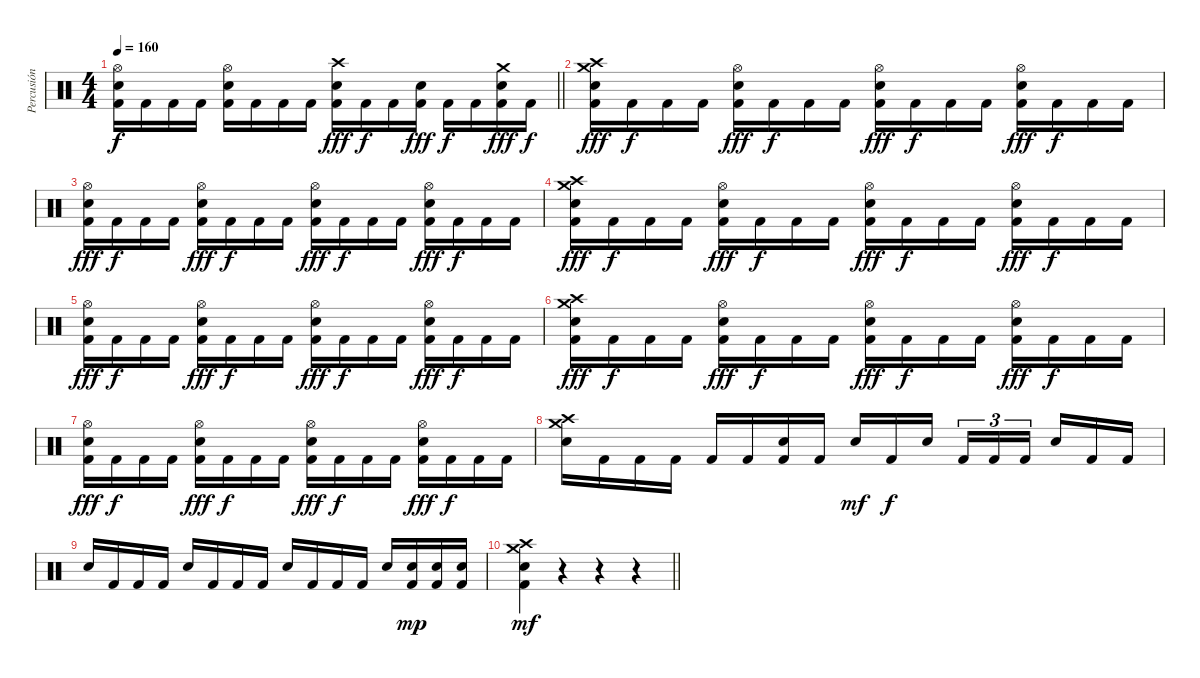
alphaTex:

\track ("Percusión" "Percusión") {instrument percussion}
\staff {score}
\articulation defaults
\ts (4 4)
\tempo 160
\clef neutral
\barLineRight lightlight
\ks c
("Hi-Hat (open)" "Electric Snare (hit)" "Kick (hit) 2").16{dy f} "Kick (hit) 2".16 "Kick (hit) 2".16 "Kick (hit) 2".16 ("Hi-Hat (open)" "Electric Snare (hit)" "Kick (hit) 2").16 "Kick (hit) 2".16 "Kick (hit) 2".16 "Kick (hit) 2".16 ("Crash high (hit)" "Electric Snare (hit)" "Kick (hit) 2").16{dy fff} "Kick (hit) 2".16{dy f} "Kick (hit) 2".16 ("Electric Snare (hit)" "Kick (hit) 2").16{dy fff} "Kick (hit) 2".16{dy f} "Kick (hit) 2".16 ("Crash medium (hit)" "Electric Snare (hit)" "Kick (hit) 2").16{dy fff} "Kick (hit) 2".16{dy f} |
("Crash high (hit)" "Crash medium (hit)" "Electric Snare (hit)" "Kick (hit) 2").16{dy fff} "Kick (hit) 2".16{dy f} "Kick (hit) 2".16 "Kick (hit) 2".16 ("Hi-Hat (open)" "Electric Snare (hit)" "Kick (hit) 2").16{dy fff} "Kick (hit) 2".16{dy f} "Kick (hit) 2".16 "Kick (hit) 2".16 ("Hi-Hat (open)" "Electric Snare (hit)" "Kick (hit) 2").16{dy fff} "Kick (hit) 2".16{dy f} "Kick (hit) 2".16 "Kick (hit) 2".16 ("Hi-Hat (open)" "Electric Snare (hit)" "Kick (hit) 2").16{dy fff} "Kick (hit) 2".16{dy f} "Kick (hit) 2".16 "Kick (hit) 2".16 |
("Hi-Hat (open)" "Electric Snare (hit)" "Kick (hit) 2").16{dy fff} "Kick (hit) 2".16{dy f} "Kick (hit) 2".16 "Kick (hit) 2".16 ("Hi-Hat (open)" "Electric Snare (hit)" "Kick (hit) 2").16{dy fff} "Kick (hit) 2".16{dy f} "Kick (hit) 2".16 "Kick (hit) 2".16 ("Hi-Hat (open)" "Electric Snare (hit)" "Kick (hit) 2").16{dy fff} "Kick (hit) 2".16{dy f} "Kick (hit) 2".16 "Kick (hit) 2".16 ("Hi-Hat (open)" "Electric Snare (hit)" "Kick (hit) 2").16{dy fff} "Kick (hit) 2".16{dy f} "Kick (hit) 2".16 "Kick (hit) 2".16 |
("Crash high (hit)" "Crash medium (hit)" "Electric Snare (hit)" "Kick (hit) 2").16{dy fff} "Kick (hit) 2".16{dy f} "Kick (hit) 2".16 "Kick (hit) 2".16 ("Hi-Hat (open)" "Electric Snare (hit)" "Kick (hit) 2").16{dy fff} "Kick (hit) 2".16{dy f} "Kick (hit) 2".16 "Kick (hit) 2".16 ("Hi-Hat (open)" "Electric Snare (hit)" "Kick (hit) 2").16{dy fff} "Kick (hit) 2".16{dy f} "Kick (hit) 2".16 "Kick (hit) 2".16 ("Hi-Hat (open)" "Electric Snare (hit)" "Kick (hit) 2").16{dy fff} "Kick (hit) 2".16{dy f} "Kick (hit) 2".16 "Kick (hit) 2".16 |
("Hi-Hat (open)" "Electric Snare (hit)" "Kick (hit) 2").16{dy fff} "Kick (hit) 2".16{dy f} "Kick (hit) 2".16 "Kick (hit) 2".16 ("Hi-Hat (open)" "Electric Snare (hit)" "Kick (hit) 2").16{dy fff} "Kick (hit) 2".16{dy f} "Kick (hit) 2".16 "Kick (hit) 2".16 ("Hi-Hat (open)" "Electric Snare (hit)" "Kick (hit) 2").16{dy fff} "Kick (hit) 2".16{dy f} "Kick (hit) 2".16 "Kick (hit) 2".16 ("Hi-Hat (open)" "Electric Snare (hit)" "Kick (hit) 2").16{dy fff} "Kick (hit) 2".16{dy f} "Kick (hit) 2".16 "Kick (hit) 2".16 |
("Crash high (hit)" "Crash medium (hit)" "Electric Snare (hit)" "Kick (hit) 2").16{dy fff} "Kick (hit) 2".16{dy f} "Kick (hit) 2".16 "Kick (hit) 2".16 ("Hi-Hat (open)" "Electric Snare (hit)" "Kick (hit) 2").16{dy fff} "Kick (hit) 2".16{dy f} "Kick (hit) 2".16 "Kick (hit) 2".16 ("Hi-Hat (open)" "Electric Snare (hit)" "Kick (hit) 2").16{dy fff} "Kick (hit) 2".16{dy f} "Kick (hit) 2".16 "Kick (hit) 2".16 ("Hi-Hat (open)" "Electric Snare (hit)" "Kick (hit) 2").16{dy fff} "Kick (hit) 2".16{dy f} "Kick (hit) 2".16 "Kick (hit) 2".16 |
("Hi-Hat (open)" "Electric Snare (hit)" "Kick (hit) 2").16{dy fff} "Kick (hit) 2".16{dy f} "Kick (hit) 2".16 "Kick (hit) 2".16 ("Hi-Hat (open)" "Electric Snare (hit)" "Kick (hit) 2").16{dy fff} "Kick (hit) 2".16{dy f} "Kick (hit) 2".16 "Kick (hit) 2".16 ("Hi-Hat (open)" "Electric Snare (hit)" "Kick (hit) 2").16{dy fff} "Kick (hit) 2".16{dy f} "Kick (hit) 2".16 "Kick (hit) 2".16 ("Hi-Hat (open)" "Electric Snare (hit)" "Kick (hit) 2").16{dy fff} "Kick (hit) 2".16{dy f} "Kick (hit) 2".16 "Kick (hit) 2".16 |
("Crash high (hit)" "Crash medium (hit)" "Electric Snare (hit)").16 "Kick (hit) 2".16 "Kick (hit) 2".16 "Kick (hit) 2".16 "Kick (hit) 2".16 "Kick (hit) 2".16 ("Electric Snare (hit)" "Kick (hit) 2").16 "Kick (hit) 2".16 "Electric Snare (hit)".16{dy mf} "Kick (hit) 2".16{dy f} "Electric Snare (hit)".16 "Kick (hit) 2".16{tu (3 2)} "Kick (hit) 2".16{tu (3 2)} "Kick (hit) 2".16{tu (3 2)} "Electric Snare (hit)".16 "Kick (hit) 2".16 "Kick (hit) 2".16 |
"Electric Snare (hit)".16 "Kick (hit) 2".16 "Kick (hit) 2".16 "Kick (hit) 2".16 "Electric Snare (hit)".16 "Kick (hit) 2".16 "Kick (hit) 2".16 "Kick (hit) 2".16 "Electric Snare (hit)".16 "Kick (hit) 2".16 "Kick (hit) 2".16 "Kick (hit) 2".16 "Electric Snare (hit)".16 ("Electric Snare (hit)" "Kick (hit) 2").16{dy mp} ("Electric Snare (hit)" "Kick (hit) 2").16 ("Electric Snare (hit)" "Kick (hit) 2").16 |
\barLineRight lightlight
("Crash high (hit)" "Crash medium (hit)" "Electric Snare (hit)" "Kick (hit) 2").4{dy mf} r.4 r.4 r.4
